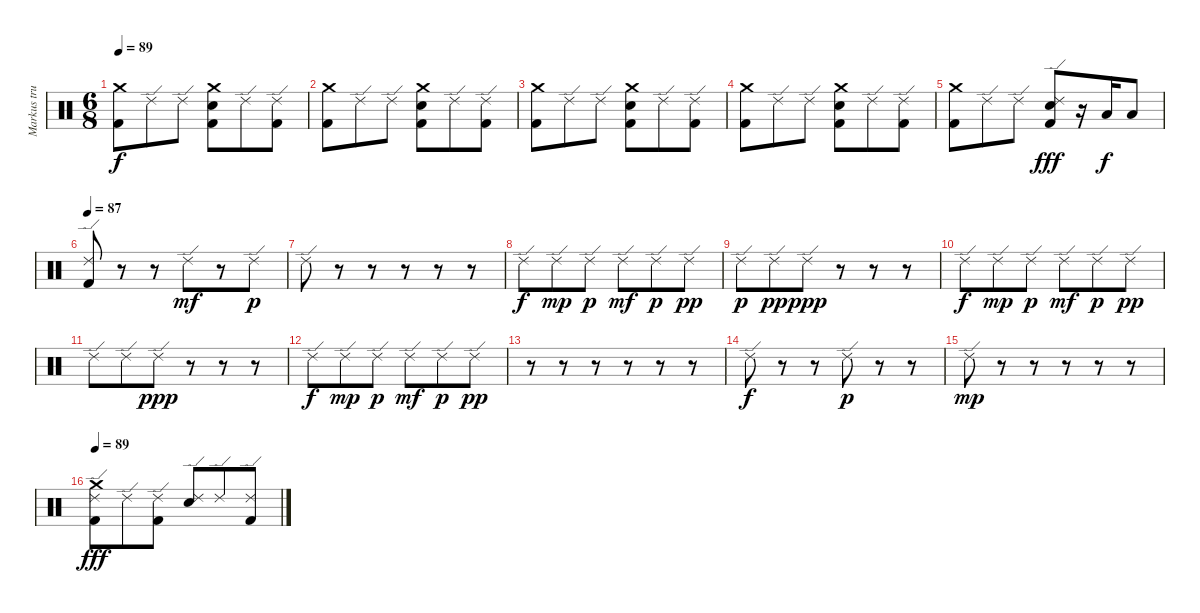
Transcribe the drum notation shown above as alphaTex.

\track ("Markus trummor" "Markus tru") {instrument percussion}
\staff {score}
\articulation defaults
\ts (6 8)
\tempo 89
\clef neutral
\ks c
("Crash medium (hit)" "Kick (hit) 2").8{dy f} "Ride (edge) 2".8 "Ride (edge) 2".8 ("Crash medium (hit)" "Snare (hit) 2" "Kick (hit) 2").8 "Ride (edge) 2".8 ("Ride (edge) 2" "Kick (hit) 2").8 |
("Crash medium (hit)" "Kick (hit) 2").8 "Ride (edge) 2".8 "Ride (edge) 2".8 ("Crash medium (hit)" "Snare (hit) 2" "Kick (hit) 2").8 "Ride (edge) 2".8 ("Ride (edge) 2" "Kick (hit) 2").8 |
("Crash medium (hit)" "Kick (hit) 2").8 "Ride (edge) 2".8 "Ride (edge) 2".8 ("Crash medium (hit)" "Snare (hit) 2" "Kick (hit) 2").8 "Ride (edge) 2".8 ("Ride (edge) 2" "Kick (hit) 2").8 |
("Crash medium (hit)" "Kick (hit) 2").8 "Ride (edge) 2".8 "Ride (edge) 2".8 ("Crash medium (hit)" "Snare (hit) 2" "Kick (hit) 2").8 "Ride (edge) 2".8 ("Ride (edge) 2" "Kick (hit) 2").8 |
("Crash medium (hit)" "Kick (hit) 2").8 "Ride (edge) 2".8 "Ride (edge) 2".8 ("Ride (edge) 2" "Snare (hit) 2" "Kick (hit) 2").8{dy fff} r.16 "Low Tom (hit)".16{dy f} "Low Floor Tom (hit)".8 |
\tempo 87
("Ride (edge) 2" "Kick (hit) 2").8 r.8 r.8 "Ride (edge) 2".8{dy mf} r.8 "Ride (edge) 2".8{dy p} |
"Ride (edge) 2".8 r.8 r.8 r.8 r.8 r.8 |
"Ride (edge) 2".8{dy f} "Ride (edge) 2".8{dy mp} "Ride (edge) 2".8{dy p} "Ride (edge) 2".8{dy mf} "Ride (edge) 2".8{dy p} "Ride (edge) 2".8{dy pp} |
"Ride (edge) 2".8{dy p} "Ride (edge) 2".8{dy pp} "Ride (edge) 2".8{dy ppp} r.8 r.8 r.8 |
"Ride (edge) 2".8{dy f} "Ride (edge) 2".8{dy mp} "Ride (edge) 2".8{dy p} "Ride (edge) 2".8{dy mf} "Ride (edge) 2".8{dy p} "Ride (edge) 2".8{dy pp} |
"Ride (edge) 2".8 "Ride (edge) 2".8 "Ride (edge) 2".8{dy ppp} r.8 r.8 r.8 |
"Ride (edge) 2".8{dy f} "Ride (edge) 2".8{dy mp} "Ride (edge) 2".8{dy p} "Ride (edge) 2".8{dy mf} "Ride (edge) 2".8{dy p} "Ride (edge) 2".8{dy pp} |
r.8 r.8 r.8 r.8 r.8 r.8 |
"Ride (edge) 2".8{dy f} r.8 r.8 "Ride (edge) 2".8{dy p} r.8 r.8 |
"Ride (edge) 2".8{dy mp} r.8 r.8 r.8 r.8 r.8 |
\tempo 89
("Crash medium (hit)" "Ride (edge) 2" "Kick (hit) 2").8{dy fff} "Ride (edge) 2".8 ("Ride (edge) 2" "Kick (hit) 2").8 ("Ride (edge) 2" "Snare (hit) 2").8 "Ride (edge) 2".8 ("Ride (edge) 2" "Kick (hit) 2").8
